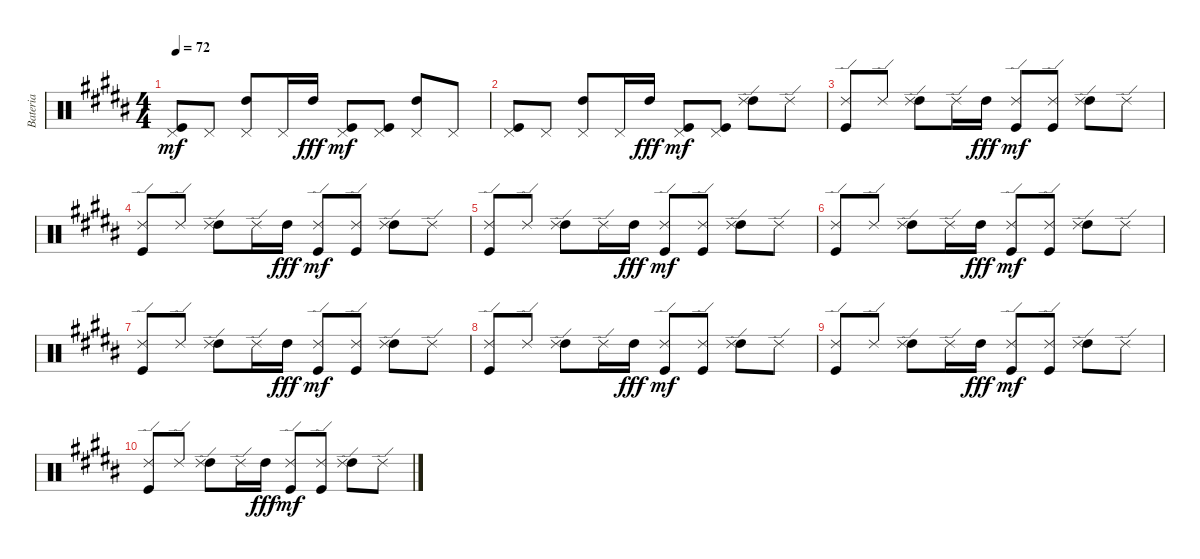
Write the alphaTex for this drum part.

\track ("Bateria" "Bateria") {instrument percussion}
\staff {score}
\articulation defaults
\ts (4 4)
\tempo 72
\clef neutral
\ks b
("Kick (hit)" "Pedal Hi-Hat (hit)").8{dy mf} "Pedal Hi-Hat (hit)".8 ("High Tom (hit)" "Pedal Hi-Hat (hit)").8 "Pedal Hi-Hat (hit)".16 "High Tom (hit)".16{dy fff} ("Kick (hit)" "Pedal Hi-Hat (hit)").8{dy mf} ("Kick (hit)" "Pedal Hi-Hat (hit)").8 ("High Tom (hit)" "Pedal Hi-Hat (hit)").8 "Pedal Hi-Hat (hit)".8 |
("Kick (hit)" "Pedal Hi-Hat (hit)").8 "Pedal Hi-Hat (hit)".8 ("High Tom (hit)" "Pedal Hi-Hat (hit)").8 "Pedal Hi-Hat (hit)".16 "High Tom (hit)".16{dy fff} ("Kick (hit)" "Pedal Hi-Hat (hit)").8{dy mf} ("Kick (hit)" "Pedal Hi-Hat (hit)").8 ("High Tom (hit)" "Ride (edge) 2").8 "Ride (edge) 2".8 |
("Kick (hit)" "Ride (edge) 2").8 "Ride (edge) 2".8 ("High Tom (hit)" "Ride (edge) 2").8 "Ride (edge) 2".16 "High Tom (hit)".16{dy fff} ("Kick (hit)" "Ride (edge) 2").8{dy mf} ("Kick (hit)" "Ride (edge) 2").8 ("High Tom (hit)" "Ride (edge) 2").8 "Ride (edge) 2".8 |
("Kick (hit)" "Ride (edge) 2").8 "Ride (edge) 2".8 ("High Tom (hit)" "Ride (edge) 2").8 "Ride (edge) 2".16 "High Tom (hit)".16{dy fff} ("Kick (hit)" "Ride (edge) 2").8{dy mf} ("Kick (hit)" "Ride (edge) 2").8 ("High Tom (hit)" "Ride (edge) 2").8 "Ride (edge) 2".8 |
("Kick (hit)" "Ride (edge) 2").8 "Ride (edge) 2".8 ("High Tom (hit)" "Ride (edge) 2").8 "Ride (edge) 2".16 "High Tom (hit)".16{dy fff} ("Kick (hit)" "Ride (edge) 2").8{dy mf} ("Kick (hit)" "Ride (edge) 2").8 ("High Tom (hit)" "Ride (edge) 2").8 "Ride (edge) 2".8 |
("Kick (hit)" "Ride (edge) 2").8 "Ride (edge) 2".8 ("High Tom (hit)" "Ride (edge) 2").8 "Ride (edge) 2".16 "High Tom (hit)".16{dy fff} ("Kick (hit)" "Ride (edge) 2").8{dy mf} ("Kick (hit)" "Ride (edge) 2").8 ("High Tom (hit)" "Ride (edge) 2").8 "Ride (edge) 2".8 |
("Kick (hit)" "Ride (edge) 2").8 "Ride (edge) 2".8 ("High Tom (hit)" "Ride (edge) 2").8 "Ride (edge) 2".16 "High Tom (hit)".16{dy fff} ("Kick (hit)" "Ride (edge) 2").8{dy mf} ("Kick (hit)" "Ride (edge) 2").8 ("High Tom (hit)" "Ride (edge) 2").8 "Ride (edge) 2".8 |
("Kick (hit)" "Ride (edge) 2").8 "Ride (edge) 2".8 ("High Tom (hit)" "Ride (edge) 2").8 "Ride (edge) 2".16 "High Tom (hit)".16{dy fff} ("Kick (hit)" "Ride (edge) 2").8{dy mf} ("Kick (hit)" "Ride (edge) 2").8 ("High Tom (hit)" "Ride (edge) 2").8 "Ride (edge) 2".8 |
("Kick (hit)" "Ride (edge) 2").8 "Ride (edge) 2".8 ("High Tom (hit)" "Ride (edge) 2").8 "Ride (edge) 2".16 "High Tom (hit)".16{dy fff} ("Kick (hit)" "Ride (edge) 2").8{dy mf} ("Kick (hit)" "Ride (edge) 2").8 ("High Tom (hit)" "Ride (edge) 2").8 "Ride (edge) 2".8 |
("Kick (hit)" "Ride (edge) 2").8 "Ride (edge) 2".8 ("High Tom (hit)" "Ride (edge) 2").8 "Ride (edge) 2".16 "High Tom (hit)".16{dy fff} ("Kick (hit)" "Ride (edge) 2").8{dy mf} ("Kick (hit)" "Ride (edge) 2").8 ("High Tom (hit)" "Ride (edge) 2").8 "Ride (edge) 2".8
